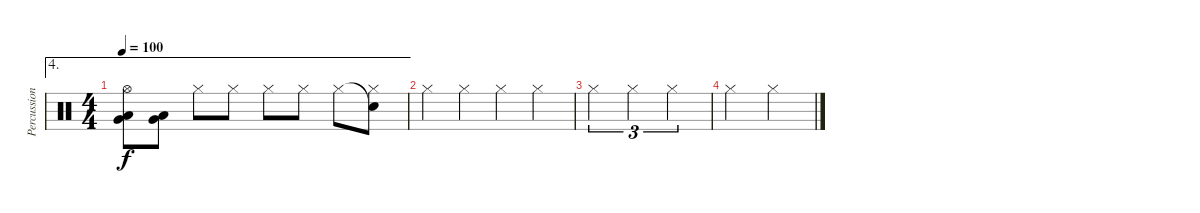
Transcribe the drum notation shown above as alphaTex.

\track ("Percussion" "Percussion") {instrument percussion}
\staff {score}
\articulation defaults
\ae 4
\ts (4 4)
\tempo 100
\clef neutral
\ks c
("Hi-Hat (open)" "Very Low Tom (hit)" "Low Tom (hit)").8{dy f} ("Very Low Tom (hit)" "Low Tom (hit)").8 "Hi-Hat (closed)".8 "Hi-Hat (closed)".8 "Hi-Hat (closed)".8 "Hi-Hat (closed)".8 "Hi-Hat (closed)".8 ("Snare (hit)"{t} "Hi-Hat (closed)").8 |
"Hi-Hat (closed)".4 "Hi-Hat (closed)".4 "Hi-Hat (closed)".4 "Hi-Hat (closed)".4 |
"Hi-Hat (closed)".2{tu (3 2)} "Hi-Hat (closed)".2{tu (3 2)} "Hi-Hat (closed)".2{tu (3 2)} |
"Hi-Hat (closed)".2 "Hi-Hat (closed)".2
